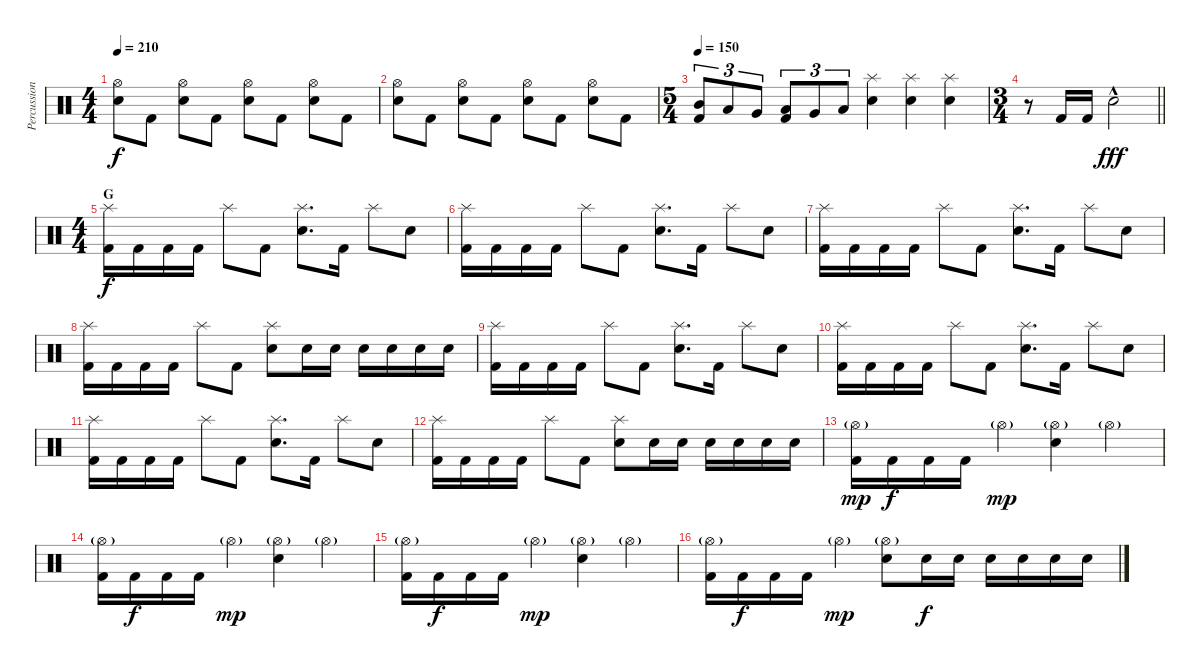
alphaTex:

\track ("Percussion" "Percussion") {instrument percussion}
\staff {score}
\articulation defaults
\ts (4 4)
\tempo 210
\clef neutral
\ks c
("Hi-Hat (open)" "Electric Snare (hit)").8{dy f} "Kick (hit) 2".8 ("Hi-Hat (open)" "Electric Snare (hit)").8 "Kick (hit) 2".8 ("Hi-Hat (open)" "Electric Snare (hit)").8 "Kick (hit) 2".8 ("Hi-Hat (open)" "Electric Snare (hit)").8 "Kick (hit) 2".8 |
("Hi-Hat (open)" "Electric Snare (hit)").8 "Kick (hit) 2".8 ("Hi-Hat (open)" "Electric Snare (hit)").8 "Kick (hit) 2".8 ("Hi-Hat (open)" "Electric Snare (hit)").8 "Kick (hit) 2".8 ("Hi-Hat (open)" "Electric Snare (hit)").8 "Kick (hit) 2".8 |
\ts (5 4)
\tempo 150
("Mid Tom (hit)" "Kick (hit) 2").8{tu (3 2)} "Low Tom (hit)".8{tu (3 2)} "Very Low Tom (hit)".8{tu (3 2)} ("Low Tom (hit)" "Kick (hit) 2").8{tu (3 2)} "Very Low Tom (hit)".8{tu (3 2)} "Low Floor Tom (hit)".8{tu (3 2)} ("Splash (hit)" "Electric Snare (hit)").4 ("Splash (hit)" "Electric Snare (hit)").4 ("Splash (hit)" "Electric Snare (hit)").4 |
\ts (3 4)
\barLineRight lightlight
r.8 "Kick (hit) 2".16 "Kick (hit) 2".16 "Electric Snare (hit)"{hac}.2{dy fff} |
\ts (4 4)
\section ("" "G")
("Splash (hit)" "Kick (hit) 2").16{dy f} "Kick (hit) 2".16 "Kick (hit) 2".16 "Kick (hit) 2".16 "Splash (hit)".8 "Kick (hit) 2".8 ("Splash (hit)" "Electric Snare (hit)").8{d} "Kick (hit) 2".16 "Splash (hit)".8 "Electric Snare (hit)".8 |
("Splash (hit)" "Kick (hit) 2").16 "Kick (hit) 2".16 "Kick (hit) 2".16 "Kick (hit) 2".16 "Splash (hit)".8 "Kick (hit) 2".8 ("Splash (hit)" "Electric Snare (hit)").8{d} "Kick (hit) 2".16 "Splash (hit)".8 "Electric Snare (hit)".8 |
("Splash (hit)" "Kick (hit) 2").16 "Kick (hit) 2".16 "Kick (hit) 2".16 "Kick (hit) 2".16 "Splash (hit)".8 "Kick (hit) 2".8 ("Splash (hit)" "Electric Snare (hit)").8{d} "Kick (hit) 2".16 "Splash (hit)".8 "Electric Snare (hit)".8 |
("Splash (hit)" "Kick (hit) 2").16 "Kick (hit) 2".16 "Kick (hit) 2".16 "Kick (hit) 2".16 "Splash (hit)".8 "Kick (hit) 2".8 ("Splash (hit)" "Electric Snare (hit)").8 "Electric Snare (hit)".16 "Electric Snare (hit)".16 "Electric Snare (hit)".16 "Electric Snare (hit)".16 "Electric Snare (hit)".16 "Electric Snare (hit)".16 |
("Splash (hit)" "Kick (hit) 2").16 "Kick (hit) 2".16 "Kick (hit) 2".16 "Kick (hit) 2".16 "Splash (hit)".8 "Kick (hit) 2".8 ("Splash (hit)" "Electric Snare (hit)").8{d} "Kick (hit) 2".16 "Splash (hit)".8 "Electric Snare (hit)".8 |
("Splash (hit)" "Kick (hit) 2").16 "Kick (hit) 2".16 "Kick (hit) 2".16 "Kick (hit) 2".16 "Splash (hit)".8 "Kick (hit) 2".8 ("Splash (hit)" "Electric Snare (hit)").8{d} "Kick (hit) 2".16 "Splash (hit)".8 "Electric Snare (hit)".8 |
("Splash (hit)" "Kick (hit) 2").16 "Kick (hit) 2".16 "Kick (hit) 2".16 "Kick (hit) 2".16 "Splash (hit)".8 "Kick (hit) 2".8 ("Splash (hit)" "Electric Snare (hit)").8{d} "Kick (hit) 2".16 "Splash (hit)".8 "Electric Snare (hit)".8 |
("Splash (hit)" "Kick (hit) 2").16 "Kick (hit) 2".16 "Kick (hit) 2".16 "Kick (hit) 2".16 "Splash (hit)".8 "Kick (hit) 2".8 ("Splash (hit)" "Electric Snare (hit)").8 "Electric Snare (hit)".16 "Electric Snare (hit)".16 "Electric Snare (hit)".16 "Electric Snare (hit)".16 "Electric Snare (hit)".16 "Electric Snare (hit)".16 |
("Hi-Hat (open)"{g} "Kick (hit) 2").16{dy mp} "Kick (hit) 2".16{dy f} "Kick (hit) 2".16 "Kick (hit) 2".16 "Hi-Hat (open)"{g}.4{dy mp} ("Hi-Hat (open)"{g} "Electric Snare (hit)").4 "Hi-Hat (open)"{g}.4 |
("Hi-Hat (open)"{g} "Kick (hit) 2").16 "Kick (hit) 2".16{dy f} "Kick (hit) 2".16 "Kick (hit) 2".16 "Hi-Hat (open)"{g}.4{dy mp} ("Hi-Hat (open)"{g} "Electric Snare (hit)").4 "Hi-Hat (open)"{g}.4 |
("Hi-Hat (open)"{g} "Kick (hit) 2").16 "Kick (hit) 2".16{dy f} "Kick (hit) 2".16 "Kick (hit) 2".16 "Hi-Hat (open)"{g}.4{dy mp} ("Hi-Hat (open)"{g} "Electric Snare (hit)").4 "Hi-Hat (open)"{g}.4 |
("Hi-Hat (open)"{g} "Kick (hit) 2").16 "Kick (hit) 2".16{dy f} "Kick (hit) 2".16 "Kick (hit) 2".16 "Hi-Hat (open)"{g}.4{dy mp} ("Hi-Hat (open)"{g} "Electric Snare (hit)").8 "Electric Snare (hit)".16{dy f} "Electric Snare (hit)".16 "Electric Snare (hit)".16 "Electric Snare (hit)".16 "Electric Snare (hit)".16 "Electric Snare (hit)".16
